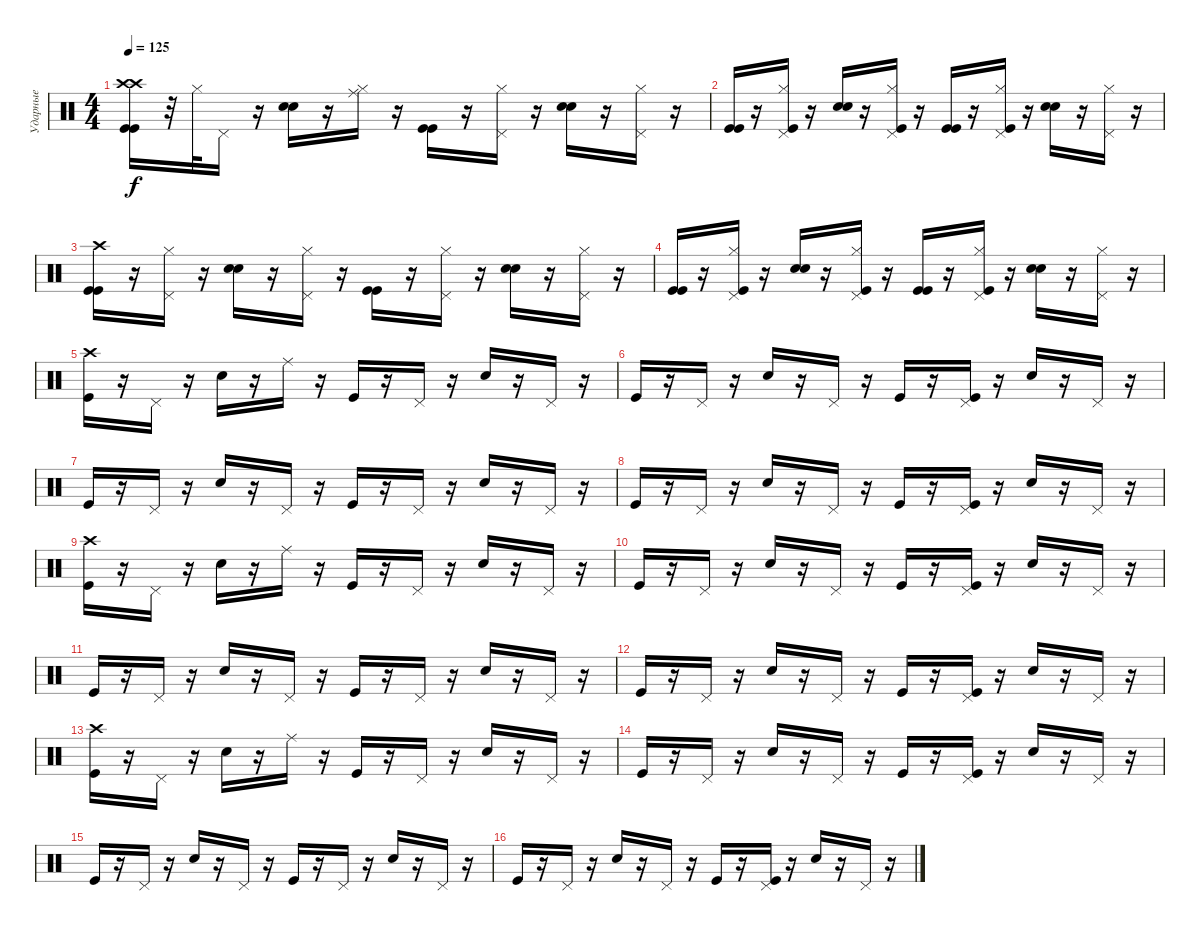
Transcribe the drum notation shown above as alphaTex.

\track ("Ударные" "Ударные") {instrument percussion}
\staff {score}
\articulation defaults
\ts (4 4)
\tempo 125
\clef neutral
\ks c
("Kick (hit)" "Crash high (hit)" "Crash high (hit)" "Kick (hit)").16{dy f} r.32 "Hi-Hat (closed)".32 "Pedal Hi-Hat (hit)".16 r.16 ("Electric Snare (hit)" "Electric Snare (hit)").16 r.16 ("Ride (middle)" "Hi-Hat (closed)").16 r.16 ("Kick (hit)" "Kick (hit)").16 r.16 ("Pedal Hi-Hat (hit)" "Hi-Hat (closed)").16 r.16 ("Electric Snare (hit)" "Electric Snare (hit)").16 r.16 ("Pedal Hi-Hat (hit)" "Hi-Hat (closed)").16 r.16 |
("Kick (hit)" "Kick (hit)").16 r.16 ("Pedal Hi-Hat (hit)" "Hi-Hat (closed)" "Kick (hit)").16 r.16 ("Electric Snare (hit)" "Electric Snare (hit)").16 r.16 ("Pedal Hi-Hat (hit)" "Hi-Hat (closed)" "Kick (hit)").16 r.16 ("Kick (hit)" "Kick (hit)").16 r.16 ("Kick (hit)" "Pedal Hi-Hat (hit)" "Hi-Hat (closed)").16 r.16 ("Electric Snare (hit)" "Electric Snare (hit)").16 r.16 ("Pedal Hi-Hat (hit)" "Hi-Hat (closed)").16 r.16 |
("Kick (hit)" "Crash high (hit)" "Kick (hit)").16 r.16 ("Pedal Hi-Hat (hit)" "Hi-Hat (closed)").16 r.16 ("Electric Snare (hit)" "Electric Snare (hit)").16 r.16 ("Pedal Hi-Hat (hit)" "Hi-Hat (closed)").16 r.16 ("Kick (hit)" "Kick (hit)").16 r.16 ("Pedal Hi-Hat (hit)" "Hi-Hat (closed)").16 r.16 ("Electric Snare (hit)" "Electric Snare (hit)").16 r.16 ("Pedal Hi-Hat (hit)" "Hi-Hat (closed)").16 r.16 |
("Kick (hit)" "Kick (hit)").16 r.16 ("Pedal Hi-Hat (hit)" "Hi-Hat (closed)" "Kick (hit)").16 r.16 ("Electric Snare (hit)" "Electric Snare (hit)").16 r.16 ("Pedal Hi-Hat (hit)" "Hi-Hat (closed)" "Kick (hit)").16 r.16 ("Kick (hit)" "Kick (hit)").16 r.16 ("Kick (hit)" "Pedal Hi-Hat (hit)" "Hi-Hat (closed)").16 r.16 ("Electric Snare (hit)" "Electric Snare (hit)").16 r.16 ("Pedal Hi-Hat (hit)" "Hi-Hat (closed)").16 r.16 |
("Kick (hit)" "Crash high (hit)").16 r.16 "Pedal Hi-Hat (hit)".16 r.16 "Electric Snare (hit)".16 r.16 "Ride (middle)".16 r.16 "Kick (hit)".16 r.16 "Pedal Hi-Hat (hit)".16 r.16 "Electric Snare (hit)".16 r.16 "Pedal Hi-Hat (hit)".16 r.16 |
"Kick (hit)".16 r.16 "Pedal Hi-Hat (hit)".16 r.16 "Electric Snare (hit)".16 r.16 "Pedal Hi-Hat (hit)".16 r.16 "Kick (hit)".16 r.16 ("Kick (hit)" "Pedal Hi-Hat (hit)").16 r.16 "Electric Snare (hit)".16 r.16 "Pedal Hi-Hat (hit)".16 r.16 |
"Kick (hit)".16 r.16 "Pedal Hi-Hat (hit)".16 r.16 "Electric Snare (hit)".16 r.16 "Pedal Hi-Hat (hit)".16 r.16 "Kick (hit)".16 r.16 "Pedal Hi-Hat (hit)".16 r.16 "Electric Snare (hit)".16 r.16 "Pedal Hi-Hat (hit)".16 r.16 |
"Kick (hit)".16 r.16 "Pedal Hi-Hat (hit)".16 r.16 "Electric Snare (hit)".16 r.16 "Pedal Hi-Hat (hit)".16 r.16 "Kick (hit)".16 r.16 ("Kick (hit)" "Pedal Hi-Hat (hit)").16 r.16 "Electric Snare (hit)".16 r.16 "Pedal Hi-Hat (hit)".16 r.16 |
("Kick (hit)" "Crash high (hit)").16 r.16 "Pedal Hi-Hat (hit)".16 r.16 "Electric Snare (hit)".16 r.16 "Ride (middle)".16 r.16 "Kick (hit)".16 r.16 "Pedal Hi-Hat (hit)".16 r.16 "Electric Snare (hit)".16 r.16 "Pedal Hi-Hat (hit)".16 r.16 |
"Kick (hit)".16 r.16 "Pedal Hi-Hat (hit)".16 r.16 "Electric Snare (hit)".16 r.16 "Pedal Hi-Hat (hit)".16 r.16 "Kick (hit)".16 r.16 ("Kick (hit)" "Pedal Hi-Hat (hit)").16 r.16 "Electric Snare (hit)".16 r.16 "Pedal Hi-Hat (hit)".16 r.16 |
"Kick (hit)".16 r.16 "Pedal Hi-Hat (hit)".16 r.16 "Electric Snare (hit)".16 r.16 "Pedal Hi-Hat (hit)".16 r.16 "Kick (hit)".16 r.16 "Pedal Hi-Hat (hit)".16 r.16 "Electric Snare (hit)".16 r.16 "Pedal Hi-Hat (hit)".16 r.16 |
"Kick (hit)".16 r.16 "Pedal Hi-Hat (hit)".16 r.16 "Electric Snare (hit)".16 r.16 "Pedal Hi-Hat (hit)".16 r.16 "Kick (hit)".16 r.16 ("Kick (hit)" "Pedal Hi-Hat (hit)").16 r.16 "Electric Snare (hit)".16 r.16 "Pedal Hi-Hat (hit)".16 r.16 |
("Kick (hit)" "Crash high (hit)").16 r.16 "Pedal Hi-Hat (hit)".16 r.16 "Electric Snare (hit)".16 r.16 "Ride (middle)".16 r.16 "Kick (hit)".16 r.16 "Pedal Hi-Hat (hit)".16 r.16 "Electric Snare (hit)".16 r.16 "Pedal Hi-Hat (hit)".16 r.16 |
"Kick (hit)".16 r.16 "Pedal Hi-Hat (hit)".16 r.16 "Electric Snare (hit)".16 r.16 "Pedal Hi-Hat (hit)".16 r.16 "Kick (hit)".16 r.16 ("Kick (hit)" "Pedal Hi-Hat (hit)").16 r.16 "Electric Snare (hit)".16 r.16 "Pedal Hi-Hat (hit)".16 r.16 |
"Kick (hit)".16 r.16 "Pedal Hi-Hat (hit)".16 r.16 "Electric Snare (hit)".16 r.16 "Pedal Hi-Hat (hit)".16 r.16 "Kick (hit)".16 r.16 "Pedal Hi-Hat (hit)".16 r.16 "Electric Snare (hit)".16 r.16 "Pedal Hi-Hat (hit)".16 r.16 |
"Kick (hit)".16 r.16 "Pedal Hi-Hat (hit)".16 r.16 "Electric Snare (hit)".16 r.16 "Pedal Hi-Hat (hit)".16 r.16 "Kick (hit)".16 r.16 ("Kick (hit)" "Pedal Hi-Hat (hit)").16 r.16 "Electric Snare (hit)".16 r.16 "Pedal Hi-Hat (hit)".16 r.16
